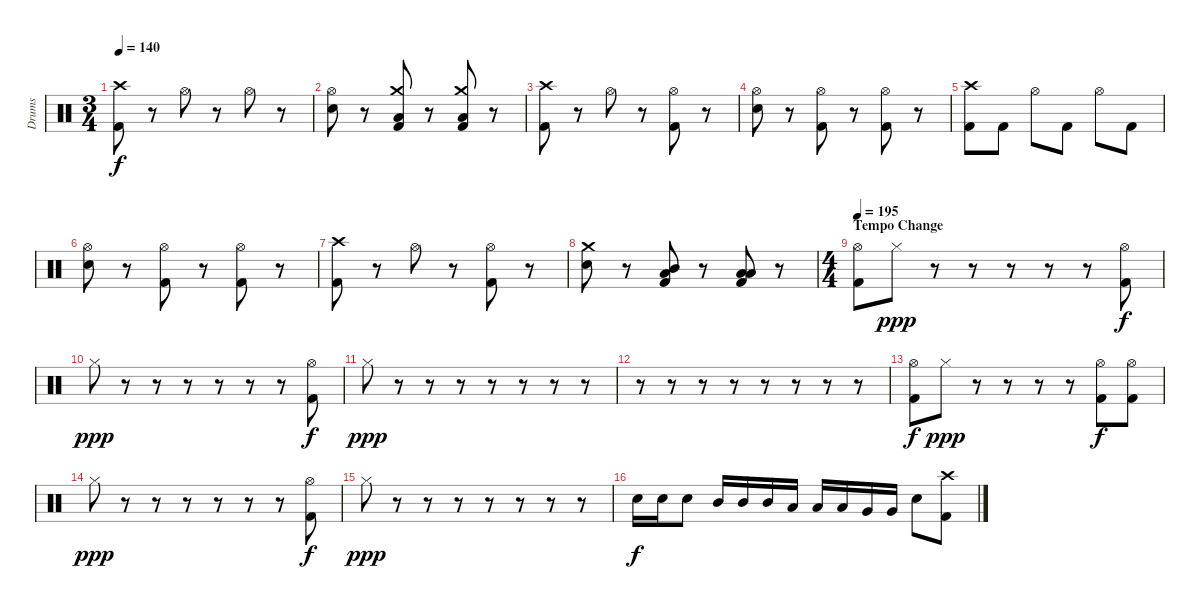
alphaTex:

\track ("Drums" "Drums") {instrument percussion}
\staff {score}
\articulation defaults
\ts (3 4)
\section ("" "")
\tempo 140
\clef neutral
\ks c
("Crash high (hit)" "Kick (hit) 2").8{dy f} r.8 "Hi-Hat (open)".8 r.8 "Hi-Hat (open)".8 r.8 |
("Hi-Hat (open)" "Snare (hit) 2").8 r.8 ("Crash medium (hit)" "Low Floor Tom (hit)" "Kick (hit) 2").8 r.8 ("Crash medium (hit)" "Low Floor Tom (hit)" "Kick (hit) 2").8 r.8 |
("Crash high (hit)" "Kick (hit) 2").8 r.8 "Hi-Hat (open)".8 r.8 ("Hi-Hat (open)" "Kick (hit) 2").8 r.8 |
("Hi-Hat (open)" "Snare (hit) 2").8 r.8 ("Hi-Hat (open)" "Kick (hit) 2").8 r.8 ("Hi-Hat (open)" "Kick (hit) 2").8 r.8 |
("Crash high (hit)" "Kick (hit) 2").8 "Kick (hit) 2".8 "Hi-Hat (open)".8 "Kick (hit) 2".8 "Hi-Hat (open)".8 "Kick (hit) 2".8 |
("Hi-Hat (open)" "Snare (hit) 2").8 r.8 ("Hi-Hat (open)" "Kick (hit) 2").8 r.8 ("Hi-Hat (open)" "Kick (hit) 2").8 r.8 |
("Crash high (hit)" "Kick (hit) 2").8 r.8 "Hi-Hat (open)".8 r.8 ("Hi-Hat (open)" "Kick (hit) 2").8 r.8 |
("Crash medium (hit)" "Snare (hit) 2").8 r.8 ("Mid Tom (hit)" "Low Floor Tom (hit)" "Kick (hit) 2").8 r.8 ("Low Tom (hit)" "Low Floor Tom (hit)" "Kick (hit) 2").8 r.8 |
\ts (4 4)
\section ("" "Tempo Change")
\tempo 195
("Hi-Hat (open)" "Kick (hit) 2").8 "Hi-Hat (closed)".8{dy ppp} r.8 r.8 r.8 r.8 r.8 ("Hi-Hat (open)" "Kick (hit) 2").8{dy f} |
"Hi-Hat (closed)".8{dy ppp} r.8 r.8 r.8 r.8 r.8 r.8 ("Hi-Hat (open)" "Kick (hit) 2").8{dy f} |
"Hi-Hat (closed)".8{dy ppp} r.8 r.8 r.8 r.8 r.8 r.8 r.8 |
r.8 r.8 r.8 r.8 r.8 r.8 r.8 r.8 |
("Hi-Hat (open)" "Kick (hit) 2").8{dy f} "Hi-Hat (closed)".8{dy ppp} r.8 r.8 r.8 r.8 ("Hi-Hat (open)" "Kick (hit) 2").8{dy f} ("Hi-Hat (open)" "Kick (hit) 2").8 |
"Hi-Hat (closed)".8{dy ppp} r.8 r.8 r.8 r.8 r.8 r.8 ("Hi-Hat (open)" "Kick (hit) 2").8{dy f} |
"Hi-Hat (closed)".8{dy ppp} r.8 r.8 r.8 r.8 r.8 r.8 r.8 |
"Snare (hit) 2".16{dy f} "Snare (hit) 2".16 "Snare (hit) 2".8 "Mid Tom (hit)".16 "Mid Tom (hit)".16 "Mid Tom (hit)".16 "Low Tom (hit)".16 "Low Tom (hit)".16 "Low Tom (hit)".16 "Very Low Tom (hit)".16 "Very Low Tom (hit)".16 "Snare (hit) 2".8 ("Crash high (hit)" "Kick (hit) 2").8
